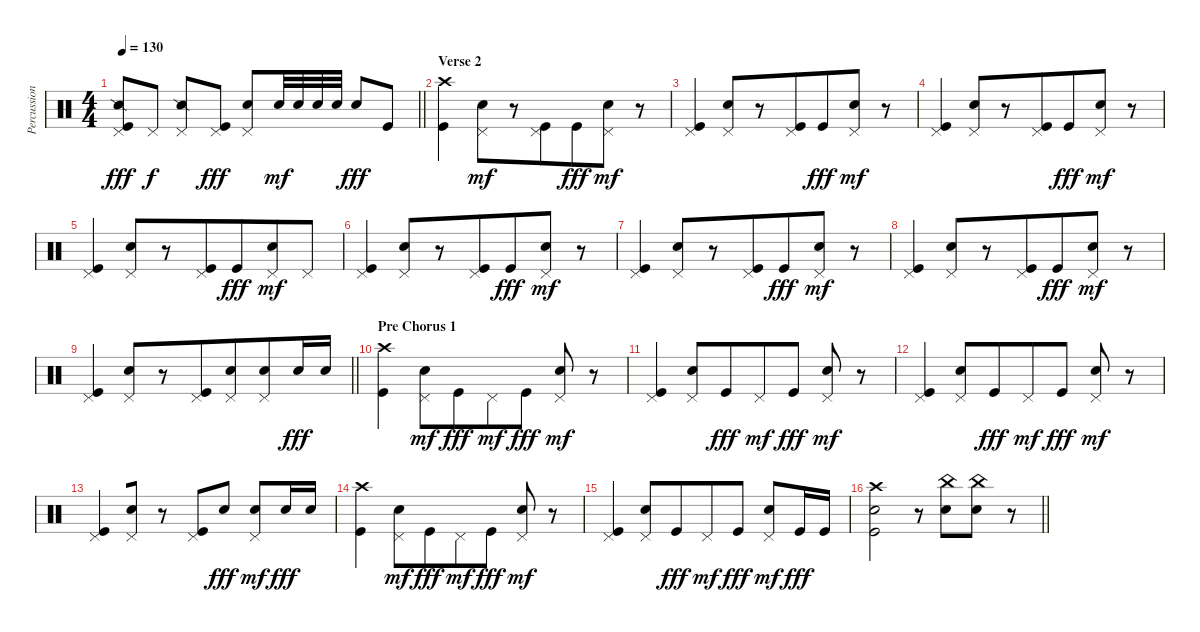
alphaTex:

\track ("Percussion" "Percussion") {instrument percussion bank 255}
\staff {score}
\articulation defaults
\ts (4 4)
\tempo 130
\clef neutral
\barLineRight lightlight
\ks c
("Pedal Hi-Hat (hit)" "Snare (side stick) 2" "Kick (hit)").8{dy fff} "Pedal Hi-Hat (hit)".8{dy f} ("Pedal Hi-Hat (hit)" "Snare (side stick) 2").8 ("Pedal Hi-Hat (hit)" "Kick (hit)").8{dy fff} ("Pedal Hi-Hat (hit)" "Snare (hit) 2").8{beam merge} "Snare (hit) 2".32{dy mf} "Snare (hit) 2".32 "Snare (hit) 2".32 "Snare (hit) 2".32 "Snare (hit) 2".8{dy fff} "Kick (hit)".8 |
\section ("" "Verse 2")
("Kick (hit)" "Crash high (hit)").4{beam merge} ("Snare (hit) 2" "Pedal Hi-Hat (hit)").8{dy mf beam merge} r.8 ("Kick (hit)" "Pedal Hi-Hat (hit)").8{beam merge} "Kick (hit)".8{dy fff beam merge} ("Snare (hit) 2" "Pedal Hi-Hat (hit)").8{dy mf beam merge} r.8 |
("Kick (hit)" "Pedal Hi-Hat (hit)").4{beam merge} ("Snare (hit) 2" "Pedal Hi-Hat (hit)").8{beam merge} r.8 ("Kick (hit)" "Pedal Hi-Hat (hit)").8{beam merge} "Kick (hit)".8{dy fff beam merge} ("Snare (hit) 2" "Pedal Hi-Hat (hit)").8{dy mf} r.8 |
("Kick (hit)" "Pedal Hi-Hat (hit)").4{beam merge} ("Snare (hit) 2" "Pedal Hi-Hat (hit)").8{beam merge} r.8 ("Kick (hit)" "Pedal Hi-Hat (hit)").8{beam merge} "Kick (hit)".8{dy fff beam merge} ("Snare (hit) 2" "Pedal Hi-Hat (hit)").8{dy mf} r.8 |
("Kick (hit)" "Pedal Hi-Hat (hit)").4{beam merge} ("Snare (hit) 2" "Pedal Hi-Hat (hit)").8{beam merge} r.8 ("Kick (hit)" "Pedal Hi-Hat (hit)").8{beam merge} "Kick (hit)".8{dy fff beam merge} ("Snare (hit) 2" "Pedal Hi-Hat (hit)").8{dy mf} "Pedal Hi-Hat (hit)".8 |
("Kick (hit)" "Pedal Hi-Hat (hit)").4{beam merge} ("Snare (hit) 2" "Pedal Hi-Hat (hit)").8{beam merge} r.8 ("Kick (hit)" "Pedal Hi-Hat (hit)").8{beam merge} "Kick (hit)".8{dy fff beam merge} ("Snare (hit) 2" "Pedal Hi-Hat (hit)").8{dy mf} r.8 |
("Kick (hit)" "Pedal Hi-Hat (hit)").4{beam merge} ("Snare (hit) 2" "Pedal Hi-Hat (hit)").8{beam merge} r.8 ("Kick (hit)" "Pedal Hi-Hat (hit)").8{beam merge} "Kick (hit)".8{dy fff beam merge} ("Snare (hit) 2" "Pedal Hi-Hat (hit)").8{dy mf} r.8 |
("Kick (hit)" "Pedal Hi-Hat (hit)").4{beam merge} ("Snare (hit) 2" "Pedal Hi-Hat (hit)").8{beam merge} r.8 ("Kick (hit)" "Pedal Hi-Hat (hit)").8{beam merge} "Kick (hit)".8{dy fff beam merge} ("Snare (hit) 2" "Pedal Hi-Hat (hit)").8{dy mf} r.8 |
\barLineRight lightlight
("Kick (hit)" "Pedal Hi-Hat (hit)").4{beam merge} ("Snare (hit) 2" "Pedal Hi-Hat (hit)").8{beam merge} r.8 ("Kick (hit)" "Pedal Hi-Hat (hit)").8{beam merge} ("Snare (hit) 2" "Pedal Hi-Hat (hit)").8{beam merge} ("Snare (hit) 2" "Pedal Hi-Hat (hit)").8{beam merge} "Snare (hit) 2".16{dy fff} "Snare (hit) 2".16 |
\section ("" "Pre Chorus 1")
("Kick (hit)" "Crash high (hit)").4{beam merge} ("Snare (hit) 2" "Pedal Hi-Hat (hit)").8{dy mf} "Kick (hit)".8{dy fff beam merge} "Pedal Hi-Hat (hit)".8{dy mf beam merge} "Kick (hit)".8{dy fff} ("Snare (hit) 2" "Pedal Hi-Hat (hit)").8{dy mf} r.8 |
("Kick (hit)" "Pedal Hi-Hat (hit)").4{beam merge} ("Snare (hit) 2" "Pedal Hi-Hat (hit)").8 "Kick (hit)".8{dy fff beam merge} "Pedal Hi-Hat (hit)".8{dy mf beam merge} "Kick (hit)".8{dy fff} ("Snare (hit) 2" "Pedal Hi-Hat (hit)").8{dy mf} r.8 |
("Kick (hit)" "Pedal Hi-Hat (hit)").4{beam merge} ("Snare (hit) 2" "Pedal Hi-Hat (hit)").8 "Kick (hit)".8{dy fff beam merge} "Pedal Hi-Hat (hit)".8{dy mf beam merge} "Kick (hit)".8{dy fff} ("Snare (hit) 2" "Pedal Hi-Hat (hit)").8{dy mf} r.8 |
("Kick (hit)" "Pedal Hi-Hat (hit)").4{beam merge} ("Snare (hit) 2" "Pedal Hi-Hat (hit)").8 r.8{beam merge} ("Kick (hit)" "Pedal Hi-Hat (hit)").8{beam merge} "Snare (hit) 2".8{dy fff} ("Snare (hit) 2" "Pedal Hi-Hat (hit)").8{dy mf} "Snare (hit) 2".16{dy fff} "Snare (hit) 2".16 |
("Kick (hit)" "Crash high (hit)").4{beam merge} ("Snare (hit) 2" "Pedal Hi-Hat (hit)").8{dy mf} "Kick (hit)".8{dy fff beam merge} "Pedal Hi-Hat (hit)".8{dy mf beam merge} "Kick (hit)".8{dy fff} ("Snare (hit) 2" "Pedal Hi-Hat (hit)").8{dy mf} r.8 |
("Kick (hit)" "Pedal Hi-Hat (hit)").4{beam merge} ("Snare (hit) 2" "Pedal Hi-Hat (hit)").8 "Kick (hit)".8{dy fff beam merge} "Pedal Hi-Hat (hit)".8{dy mf beam merge} "Kick (hit)".8{dy fff} ("Snare (hit) 2" "Pedal Hi-Hat (hit)").8{dy mf} "Kick (hit)".16{dy fff} "Kick (hit)".16 |
\barLineRight lightlight
("Kick (hit)" "Snare (hit) 2" "Crash high (hit)").2 r.8 ("Snare (hit) 2" "China (hit)").8{beam merge} ("Snare (hit) 2" "China (hit)").8 r.8
